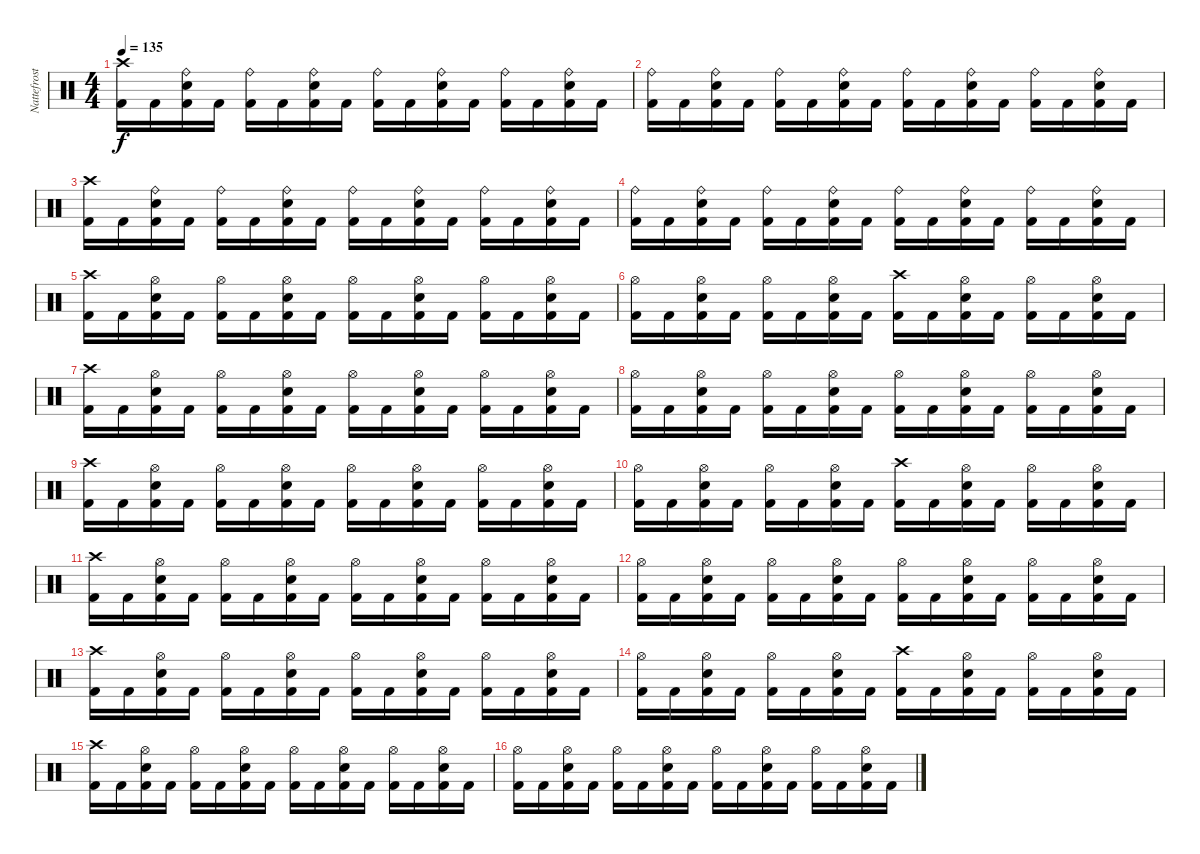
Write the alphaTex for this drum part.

\track ("Nattefrost" "Nattefrost") {instrument percussion}
\staff {score}
\articulation defaults
\ts (4 4)
\tempo 135
\clef neutral
\ks c
("Crash high (hit)" "Kick (hit) 2").16{dy f} "Kick (hit) 2".16 ("Ride (bell)" "Snare (hit) 2" "Kick (hit) 2").16 "Kick (hit) 2".16 ("Ride (bell)" "Kick (hit) 2").16 "Kick (hit) 2".16 ("Ride (bell)" "Snare (hit) 2" "Kick (hit) 2").16 "Kick (hit) 2".16 ("Ride (bell)" "Kick (hit) 2").16 "Kick (hit) 2".16 ("Ride (bell)" "Snare (hit) 2" "Kick (hit) 2").16 "Kick (hit) 2".16 ("Ride (bell)" "Kick (hit) 2").16 "Kick (hit) 2".16 ("Ride (bell)" "Snare (hit) 2" "Kick (hit) 2").16 "Kick (hit) 2".16 |
("Ride (bell)" "Kick (hit) 2").16 "Kick (hit) 2".16 ("Ride (bell)" "Snare (hit) 2" "Kick (hit) 2").16 "Kick (hit) 2".16 ("Ride (bell)" "Kick (hit) 2").16 "Kick (hit) 2".16 ("Ride (bell)" "Snare (hit) 2" "Kick (hit) 2").16 "Kick (hit) 2".16 ("Ride (bell)" "Kick (hit) 2").16 "Kick (hit) 2".16 ("Ride (bell)" "Snare (hit) 2" "Kick (hit) 2").16 "Kick (hit) 2".16 ("Ride (bell)" "Kick (hit) 2").16 "Kick (hit) 2".16 ("Ride (bell)" "Snare (hit) 2" "Kick (hit) 2").16 "Kick (hit) 2".16 |
("Crash high (hit)" "Kick (hit) 2").16 "Kick (hit) 2".16 ("Ride (bell)" "Snare (hit) 2" "Kick (hit) 2").16 "Kick (hit) 2".16 ("Ride (bell)" "Kick (hit) 2").16 "Kick (hit) 2".16 ("Ride (bell)" "Snare (hit) 2" "Kick (hit) 2").16 "Kick (hit) 2".16 ("Ride (bell)" "Kick (hit) 2").16 "Kick (hit) 2".16 ("Ride (bell)" "Snare (hit) 2" "Kick (hit) 2").16 "Kick (hit) 2".16 ("Ride (bell)" "Kick (hit) 2").16 "Kick (hit) 2".16 ("Ride (bell)" "Snare (hit) 2" "Kick (hit) 2").16 "Kick (hit) 2".16 |
("Ride (bell)" "Kick (hit) 2").16 "Kick (hit) 2".16 ("Ride (bell)" "Snare (hit) 2" "Kick (hit) 2").16 "Kick (hit) 2".16 ("Ride (bell)" "Kick (hit) 2").16 "Kick (hit) 2".16 ("Ride (bell)" "Snare (hit) 2" "Kick (hit) 2").16 "Kick (hit) 2".16 ("Ride (bell)" "Kick (hit) 2").16 "Kick (hit) 2".16 ("Ride (bell)" "Snare (hit) 2" "Kick (hit) 2").16 "Kick (hit) 2".16 ("Ride (bell)" "Kick (hit) 2").16 "Kick (hit) 2".16 ("Ride (bell)" "Snare (hit) 2" "Kick (hit) 2").16 "Kick (hit) 2".16 |
("Crash high (hit)" "Kick (hit) 2").16 "Kick (hit) 2".16 ("Hi-Hat (open)" "Snare (hit) 2" "Kick (hit) 2").16 "Kick (hit) 2".16 ("Hi-Hat (open)" "Kick (hit) 2").16 "Kick (hit) 2".16 ("Hi-Hat (open)" "Snare (hit) 2" "Kick (hit) 2").16 "Kick (hit) 2".16 ("Hi-Hat (open)" "Kick (hit) 2").16 "Kick (hit) 2".16 ("Hi-Hat (open)" "Snare (hit) 2" "Kick (hit) 2").16 "Kick (hit) 2".16 ("Hi-Hat (open)" "Kick (hit) 2").16 "Kick (hit) 2".16 ("Hi-Hat (open)" "Snare (hit) 2" "Kick (hit) 2").16 "Kick (hit) 2".16 |
("Hi-Hat (open)" "Kick (hit) 2").16 "Kick (hit) 2".16 ("Hi-Hat (open)" "Snare (hit) 2" "Kick (hit) 2").16 "Kick (hit) 2".16 ("Hi-Hat (open)" "Kick (hit) 2").16 "Kick (hit) 2".16 ("Hi-Hat (open)" "Snare (hit) 2" "Kick (hit) 2").16 "Kick (hit) 2".16 ("Crash high (hit)" "Kick (hit) 2").16 "Kick (hit) 2".16 ("Hi-Hat (open)" "Snare (hit) 2" "Kick (hit) 2").16 "Kick (hit) 2".16 ("Hi-Hat (open)" "Kick (hit) 2").16 "Kick (hit) 2".16 ("Hi-Hat (open)" "Snare (hit) 2" "Kick (hit) 2").16 "Kick (hit) 2".16 |
("Crash high (hit)" "Kick (hit) 2").16 "Kick (hit) 2".16 ("Hi-Hat (open)" "Snare (hit) 2" "Kick (hit) 2").16 "Kick (hit) 2".16 ("Hi-Hat (open)" "Kick (hit) 2").16 "Kick (hit) 2".16 ("Hi-Hat (open)" "Snare (hit) 2" "Kick (hit) 2").16 "Kick (hit) 2".16 ("Hi-Hat (open)" "Kick (hit) 2").16 "Kick (hit) 2".16 ("Hi-Hat (open)" "Snare (hit) 2" "Kick (hit) 2").16 "Kick (hit) 2".16 ("Hi-Hat (open)" "Kick (hit) 2").16 "Kick (hit) 2".16 ("Hi-Hat (open)" "Snare (hit) 2" "Kick (hit) 2").16 "Kick (hit) 2".16 |
("Hi-Hat (open)" "Kick (hit) 2").16 "Kick (hit) 2".16 ("Hi-Hat (open)" "Snare (hit) 2" "Kick (hit) 2").16 "Kick (hit) 2".16 ("Hi-Hat (open)" "Kick (hit) 2").16 "Kick (hit) 2".16 ("Hi-Hat (open)" "Snare (hit) 2" "Kick (hit) 2").16 "Kick (hit) 2".16 ("Hi-Hat (open)" "Kick (hit) 2").16 "Kick (hit) 2".16 ("Hi-Hat (open)" "Snare (hit) 2" "Kick (hit) 2").16 "Kick (hit) 2".16 ("Hi-Hat (open)" "Kick (hit) 2").16 "Kick (hit) 2".16 ("Hi-Hat (open)" "Snare (hit) 2" "Kick (hit) 2").16 "Kick (hit) 2".16 |
("Crash high (hit)" "Kick (hit) 2").16 "Kick (hit) 2".16 ("Hi-Hat (open)" "Snare (hit) 2" "Kick (hit) 2").16 "Kick (hit) 2".16 ("Hi-Hat (open)" "Kick (hit) 2").16 "Kick (hit) 2".16 ("Hi-Hat (open)" "Snare (hit) 2" "Kick (hit) 2").16 "Kick (hit) 2".16 ("Hi-Hat (open)" "Kick (hit) 2").16 "Kick (hit) 2".16 ("Hi-Hat (open)" "Snare (hit) 2" "Kick (hit) 2").16 "Kick (hit) 2".16 ("Hi-Hat (open)" "Kick (hit) 2").16 "Kick (hit) 2".16 ("Hi-Hat (open)" "Snare (hit) 2" "Kick (hit) 2").16 "Kick (hit) 2".16 |
("Hi-Hat (open)" "Kick (hit) 2").16 "Kick (hit) 2".16 ("Hi-Hat (open)" "Snare (hit) 2" "Kick (hit) 2").16 "Kick (hit) 2".16 ("Hi-Hat (open)" "Kick (hit) 2").16 "Kick (hit) 2".16 ("Hi-Hat (open)" "Snare (hit) 2" "Kick (hit) 2").16 "Kick (hit) 2".16 ("Crash high (hit)" "Kick (hit) 2").16 "Kick (hit) 2".16 ("Hi-Hat (open)" "Snare (hit) 2" "Kick (hit) 2").16 "Kick (hit) 2".16 ("Hi-Hat (open)" "Kick (hit) 2").16 "Kick (hit) 2".16 ("Hi-Hat (open)" "Snare (hit) 2" "Kick (hit) 2").16 "Kick (hit) 2".16 |
("Crash high (hit)" "Kick (hit) 2").16 "Kick (hit) 2".16 ("Hi-Hat (open)" "Snare (hit) 2" "Kick (hit) 2").16 "Kick (hit) 2".16 ("Hi-Hat (open)" "Kick (hit) 2").16 "Kick (hit) 2".16 ("Hi-Hat (open)" "Snare (hit) 2" "Kick (hit) 2").16 "Kick (hit) 2".16 ("Hi-Hat (open)" "Kick (hit) 2").16 "Kick (hit) 2".16 ("Hi-Hat (open)" "Snare (hit) 2" "Kick (hit) 2").16 "Kick (hit) 2".16 ("Hi-Hat (open)" "Kick (hit) 2").16 "Kick (hit) 2".16 ("Hi-Hat (open)" "Snare (hit) 2" "Kick (hit) 2").16 "Kick (hit) 2".16 |
("Hi-Hat (open)" "Kick (hit) 2").16 "Kick (hit) 2".16 ("Hi-Hat (open)" "Snare (hit) 2" "Kick (hit) 2").16 "Kick (hit) 2".16 ("Hi-Hat (open)" "Kick (hit) 2").16 "Kick (hit) 2".16 ("Hi-Hat (open)" "Snare (hit) 2" "Kick (hit) 2").16 "Kick (hit) 2".16 ("Hi-Hat (open)" "Kick (hit) 2").16 "Kick (hit) 2".16 ("Hi-Hat (open)" "Snare (hit) 2" "Kick (hit) 2").16 "Kick (hit) 2".16 ("Hi-Hat (open)" "Kick (hit) 2").16 "Kick (hit) 2".16 ("Hi-Hat (open)" "Snare (hit) 2" "Kick (hit) 2").16 "Kick (hit) 2".16 |
("Crash high (hit)" "Kick (hit) 2").16 "Kick (hit) 2".16 ("Hi-Hat (open)" "Snare (hit) 2" "Kick (hit) 2").16 "Kick (hit) 2".16 ("Hi-Hat (open)" "Kick (hit) 2").16 "Kick (hit) 2".16 ("Hi-Hat (open)" "Snare (hit) 2" "Kick (hit) 2").16 "Kick (hit) 2".16 ("Hi-Hat (open)" "Kick (hit) 2").16 "Kick (hit) 2".16 ("Hi-Hat (open)" "Snare (hit) 2" "Kick (hit) 2").16 "Kick (hit) 2".16 ("Hi-Hat (open)" "Kick (hit) 2").16 "Kick (hit) 2".16 ("Hi-Hat (open)" "Snare (hit) 2" "Kick (hit) 2").16 "Kick (hit) 2".16 |
("Hi-Hat (open)" "Kick (hit) 2").16 "Kick (hit) 2".16 ("Hi-Hat (open)" "Snare (hit) 2" "Kick (hit) 2").16 "Kick (hit) 2".16 ("Hi-Hat (open)" "Kick (hit) 2").16 "Kick (hit) 2".16 ("Hi-Hat (open)" "Snare (hit) 2" "Kick (hit) 2").16 "Kick (hit) 2".16 ("Crash high (hit)" "Kick (hit) 2").16 "Kick (hit) 2".16 ("Hi-Hat (open)" "Snare (hit) 2" "Kick (hit) 2").16 "Kick (hit) 2".16 ("Hi-Hat (open)" "Kick (hit) 2").16 "Kick (hit) 2".16 ("Hi-Hat (open)" "Snare (hit) 2" "Kick (hit) 2").16 "Kick (hit) 2".16 |
("Crash high (hit)" "Kick (hit) 2").16 "Kick (hit) 2".16 ("Hi-Hat (open)" "Snare (hit) 2" "Kick (hit) 2").16 "Kick (hit) 2".16 ("Hi-Hat (open)" "Kick (hit) 2").16 "Kick (hit) 2".16 ("Hi-Hat (open)" "Snare (hit) 2" "Kick (hit) 2").16 "Kick (hit) 2".16 ("Hi-Hat (open)" "Kick (hit) 2").16 "Kick (hit) 2".16 ("Hi-Hat (open)" "Snare (hit) 2" "Kick (hit) 2").16 "Kick (hit) 2".16 ("Hi-Hat (open)" "Kick (hit) 2").16 "Kick (hit) 2".16 ("Hi-Hat (open)" "Snare (hit) 2" "Kick (hit) 2").16 "Kick (hit) 2".16 |
("Hi-Hat (open)" "Kick (hit) 2").16 "Kick (hit) 2".16 ("Hi-Hat (open)" "Snare (hit) 2" "Kick (hit) 2").16 "Kick (hit) 2".16 ("Hi-Hat (open)" "Kick (hit) 2").16 "Kick (hit) 2".16 ("Hi-Hat (open)" "Snare (hit) 2" "Kick (hit) 2").16 "Kick (hit) 2".16 ("Hi-Hat (open)" "Kick (hit) 2").16 "Kick (hit) 2".16 ("Hi-Hat (open)" "Snare (hit) 2" "Kick (hit) 2").16 "Kick (hit) 2".16 ("Hi-Hat (open)" "Kick (hit) 2").16 "Kick (hit) 2".16 ("Hi-Hat (open)" "Snare (hit) 2" "Kick (hit) 2").16 "Kick (hit) 2".16
